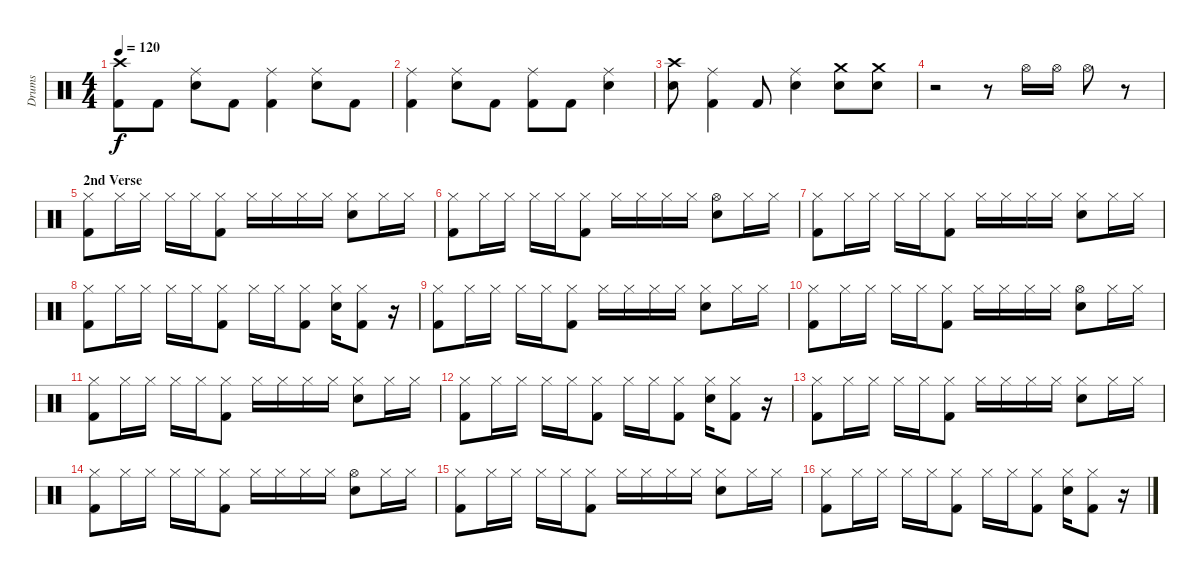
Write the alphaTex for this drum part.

\track ("Drums" "Drums") {instrument percussion}
\staff {score}
\articulation defaults
\ts (4 4)
\tempo 120
\clef neutral
\ks c
("Crash high (hit)" "Kick (hit) 2").8{dy f} "Kick (hit) 2".8 ("Ride (middle)" "Snare (hit) 2").8 "Kick (hit) 2".8 ("Ride (middle)" "Kick (hit) 2").4 ("Ride (middle)" "Snare (hit) 2").8 "Kick (hit) 2".8 |
("Ride (middle)" "Kick (hit) 2").4 ("Ride (middle)" "Snare (hit) 2").8 "Kick (hit) 2".8 ("Ride (middle)" "Kick (hit) 2").8 "Kick (hit) 2".8 ("Ride (middle)" "Snare (hit) 2").4 |
("Crash high (hit)" "Snare (hit) 2").8 ("Ride (middle)" "Kick (hit) 2").4 "Kick (hit) 2".8 ("Ride (middle)" "Snare (hit) 2").4 ("Crash medium (hit)" "Snare (hit) 2").8 ("Crash medium (hit)" "Snare (hit) 2").8 |
r.2 r.8 "Hi-Hat (open)".16 "Hi-Hat (open)".16 "Hi-Hat (open)".8 r.8 |
\section ("" "2nd Verse")
("Hi-Hat (closed)" "Kick (hit) 2").8 "Hi-Hat (closed)".16 "Hi-Hat (closed)".16 "Hi-Hat (closed)".16 "Hi-Hat (closed)".16 ("Hi-Hat (closed)" "Kick (hit) 2").8 "Hi-Hat (closed)".16 "Hi-Hat (closed)".16 "Hi-Hat (closed)".16 "Hi-Hat (closed)".16 ("Hi-Hat (closed)" "Snare (hit) 2").8 "Hi-Hat (closed)".16 "Hi-Hat (closed)".16 |
("Hi-Hat (closed)" "Kick (hit) 2").8 "Hi-Hat (closed)".16 "Hi-Hat (closed)".16 "Hi-Hat (closed)".16 "Hi-Hat (closed)".16 ("Hi-Hat (closed)" "Kick (hit) 2").8 "Hi-Hat (closed)".16 "Hi-Hat (closed)".16 "Hi-Hat (closed)".16 "Hi-Hat (closed)".16 ("Hi-Hat (open)" "Snare (hit) 2").8 "Hi-Hat (closed)".16 "Hi-Hat (closed)".16 |
("Hi-Hat (closed)" "Kick (hit) 2").8 "Hi-Hat (closed)".16 "Hi-Hat (closed)".16 "Hi-Hat (closed)".16 "Hi-Hat (closed)".16 ("Hi-Hat (closed)" "Kick (hit) 2").8 "Hi-Hat (closed)".16 "Hi-Hat (closed)".16 "Hi-Hat (closed)".16 "Hi-Hat (closed)".16 ("Hi-Hat (closed)" "Snare (hit) 2").8 "Hi-Hat (closed)".16 "Hi-Hat (closed)".16 |
("Hi-Hat (closed)" "Kick (hit) 2").8 "Hi-Hat (closed)".16 "Hi-Hat (closed)".16 "Hi-Hat (closed)".16 "Hi-Hat (closed)".16 ("Hi-Hat (closed)" "Kick (hit) 2").8 "Hi-Hat (closed)".16 "Hi-Hat (closed)".16 ("Hi-Hat (closed)" "Kick (hit) 2").8 ("Hi-Hat (closed)" "Snare (hit) 2").16 ("Hi-Hat (closed)" "Kick (hit) 2").8 r.16 |
("Hi-Hat (closed)" "Kick (hit) 2").8 "Hi-Hat (closed)".16 "Hi-Hat (closed)".16 "Hi-Hat (closed)".16 "Hi-Hat (closed)".16 ("Hi-Hat (closed)" "Kick (hit) 2").8 "Hi-Hat (closed)".16 "Hi-Hat (closed)".16 "Hi-Hat (closed)".16 "Hi-Hat (closed)".16 ("Hi-Hat (closed)" "Snare (hit) 2").8 "Hi-Hat (closed)".16 "Hi-Hat (closed)".16 |
("Hi-Hat (closed)" "Kick (hit) 2").8 "Hi-Hat (closed)".16 "Hi-Hat (closed)".16 "Hi-Hat (closed)".16 "Hi-Hat (closed)".16 ("Hi-Hat (closed)" "Kick (hit) 2").8 "Hi-Hat (closed)".16 "Hi-Hat (closed)".16 "Hi-Hat (closed)".16 "Hi-Hat (closed)".16 ("Hi-Hat (open)" "Snare (hit) 2").8 "Hi-Hat (closed)".16 "Hi-Hat (closed)".16 |
("Hi-Hat (closed)" "Kick (hit) 2").8 "Hi-Hat (closed)".16 "Hi-Hat (closed)".16 "Hi-Hat (closed)".16 "Hi-Hat (closed)".16 ("Hi-Hat (closed)" "Kick (hit) 2").8 "Hi-Hat (closed)".16 "Hi-Hat (closed)".16 "Hi-Hat (closed)".16 "Hi-Hat (closed)".16 ("Hi-Hat (closed)" "Snare (hit) 2").8 "Hi-Hat (closed)".16 "Hi-Hat (closed)".16 |
("Hi-Hat (closed)" "Kick (hit) 2").8 "Hi-Hat (closed)".16 "Hi-Hat (closed)".16 "Hi-Hat (closed)".16 "Hi-Hat (closed)".16 ("Hi-Hat (closed)" "Kick (hit) 2").8 "Hi-Hat (closed)".16 "Hi-Hat (closed)".16 ("Hi-Hat (closed)" "Kick (hit) 2").8 ("Hi-Hat (closed)" "Snare (hit) 2").16 ("Hi-Hat (closed)" "Kick (hit) 2").8 r.16 |
("Hi-Hat (closed)" "Kick (hit) 2").8 "Hi-Hat (closed)".16 "Hi-Hat (closed)".16 "Hi-Hat (closed)".16 "Hi-Hat (closed)".16 ("Hi-Hat (closed)" "Kick (hit) 2").8 "Hi-Hat (closed)".16 "Hi-Hat (closed)".16 "Hi-Hat (closed)".16 "Hi-Hat (closed)".16 ("Hi-Hat (closed)" "Snare (hit) 2").8 "Hi-Hat (closed)".16 "Hi-Hat (closed)".16 |
("Hi-Hat (closed)" "Kick (hit) 2").8 "Hi-Hat (closed)".16 "Hi-Hat (closed)".16 "Hi-Hat (closed)".16 "Hi-Hat (closed)".16 ("Hi-Hat (closed)" "Kick (hit) 2").8 "Hi-Hat (closed)".16 "Hi-Hat (closed)".16 "Hi-Hat (closed)".16 "Hi-Hat (closed)".16 ("Hi-Hat (open)" "Snare (hit) 2").8 "Hi-Hat (closed)".16 "Hi-Hat (closed)".16 |
("Hi-Hat (closed)" "Kick (hit) 2").8 "Hi-Hat (closed)".16 "Hi-Hat (closed)".16 "Hi-Hat (closed)".16 "Hi-Hat (closed)".16 ("Hi-Hat (closed)" "Kick (hit) 2").8 "Hi-Hat (closed)".16 "Hi-Hat (closed)".16 "Hi-Hat (closed)".16 "Hi-Hat (closed)".16 ("Hi-Hat (closed)" "Snare (hit) 2").8 "Hi-Hat (closed)".16 "Hi-Hat (closed)".16 |
("Hi-Hat (closed)" "Kick (hit) 2").8 "Hi-Hat (closed)".16 "Hi-Hat (closed)".16 "Hi-Hat (closed)".16 "Hi-Hat (closed)".16 ("Hi-Hat (closed)" "Kick (hit) 2").8 "Hi-Hat (closed)".16 "Hi-Hat (closed)".16 ("Hi-Hat (closed)" "Kick (hit) 2").8 ("Hi-Hat (closed)" "Snare (hit) 2").16 ("Hi-Hat (closed)" "Kick (hit) 2").8 r.16
